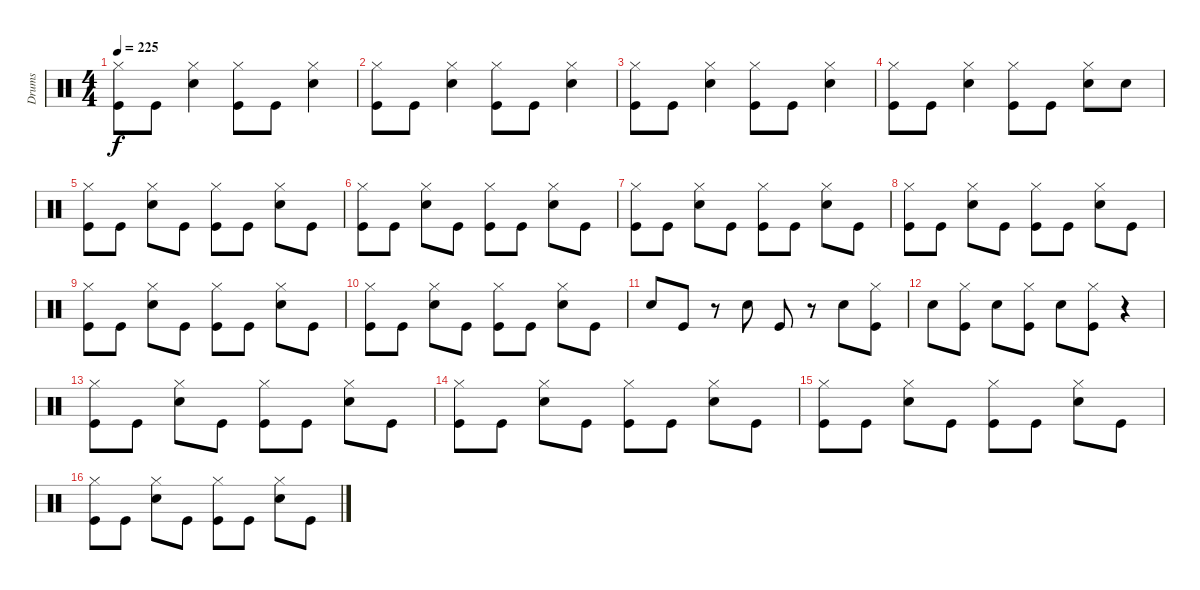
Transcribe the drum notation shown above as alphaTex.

\track ("Drums" "Drums") {instrument percussion}
\staff {score}
\articulation defaults
\ts (4 4)
\tempo 225
\clef neutral
\ks c
("Kick (hit)" "Hi-Hat (closed)").8{dy f} "Kick (hit)".8 ("Electric Snare (hit)" "Hi-Hat (closed)").4 ("Kick (hit)" "Hi-Hat (closed)").8 "Kick (hit)".8 ("Electric Snare (hit)" "Hi-Hat (closed)").4 |
("Kick (hit)" "Hi-Hat (closed)").8 "Kick (hit)".8 ("Electric Snare (hit)" "Hi-Hat (closed)").4 ("Kick (hit)" "Hi-Hat (closed)").8 "Kick (hit)".8 ("Electric Snare (hit)" "Hi-Hat (closed)").4 |
("Kick (hit)" "Hi-Hat (closed)").8 "Kick (hit)".8 ("Electric Snare (hit)" "Hi-Hat (closed)").4 ("Kick (hit)" "Hi-Hat (closed)").8 "Kick (hit)".8 ("Electric Snare (hit)" "Hi-Hat (closed)").4 |
("Kick (hit)" "Hi-Hat (closed)").8 "Kick (hit)".8 ("Electric Snare (hit)" "Hi-Hat (closed)").4 ("Kick (hit)" "Hi-Hat (closed)").8 "Kick (hit)".8 ("Electric Snare (hit)" "Hi-Hat (closed)").8 "Electric Snare (hit)".8 |
("Kick (hit)" "Hi-Hat (closed)").8 "Kick (hit)".8 ("Electric Snare (hit)" "Hi-Hat (closed)").8 "Kick (hit)".8 ("Kick (hit)" "Hi-Hat (closed)").8 "Kick (hit)".8 ("Electric Snare (hit)" "Hi-Hat (closed)").8 "Kick (hit)".8 |
("Kick (hit)" "Hi-Hat (closed)").8 "Kick (hit)".8 ("Electric Snare (hit)" "Hi-Hat (closed)").8 "Kick (hit)".8 ("Kick (hit)" "Hi-Hat (closed)").8 "Kick (hit)".8 ("Electric Snare (hit)" "Hi-Hat (closed)").8 "Kick (hit)".8 |
("Kick (hit)" "Hi-Hat (closed)").8 "Kick (hit)".8 ("Electric Snare (hit)" "Hi-Hat (closed)").8 "Kick (hit)".8 ("Kick (hit)" "Hi-Hat (closed)").8 "Kick (hit)".8 ("Electric Snare (hit)" "Hi-Hat (closed)").8 "Kick (hit)".8 |
("Kick (hit)" "Hi-Hat (closed)").8 "Kick (hit)".8 ("Electric Snare (hit)" "Hi-Hat (closed)").8 "Kick (hit)".8 ("Kick (hit)" "Hi-Hat (closed)").8 "Kick (hit)".8 ("Electric Snare (hit)" "Hi-Hat (closed)").8 "Kick (hit)".8 |
("Kick (hit)" "Hi-Hat (closed)").8 "Kick (hit)".8 ("Electric Snare (hit)" "Hi-Hat (closed)").8 "Kick (hit)".8 ("Kick (hit)" "Hi-Hat (closed)").8 "Kick (hit)".8 ("Electric Snare (hit)" "Hi-Hat (closed)").8 "Kick (hit)".8 |
("Kick (hit)" "Hi-Hat (closed)").8 "Kick (hit)".8 ("Electric Snare (hit)" "Hi-Hat (closed)").8 "Kick (hit)".8 ("Kick (hit)" "Hi-Hat (closed)").8 "Kick (hit)".8 ("Electric Snare (hit)" "Hi-Hat (closed)").8 "Kick (hit)".8 |
"Electric Snare (hit)".8 "Kick (hit)".8 r.8 "Electric Snare (hit)".8 "Kick (hit)".8 r.8 "Electric Snare (hit)".8 ("Kick (hit)" "Hi-Hat (closed)").8 |
"Electric Snare (hit)".8 ("Kick (hit)" "Hi-Hat (closed)").8 "Electric Snare (hit)".8 ("Kick (hit)" "Hi-Hat (closed)").8 "Electric Snare (hit)".8 ("Kick (hit)" "Hi-Hat (closed)").8 r.4 |
("Kick (hit)" "Hi-Hat (closed)").8 "Kick (hit)".8 ("Electric Snare (hit)" "Hi-Hat (closed)").8 "Kick (hit)".8 ("Kick (hit)" "Hi-Hat (closed)").8 "Kick (hit)".8 ("Electric Snare (hit)" "Hi-Hat (closed)").8 "Kick (hit)".8 |
("Kick (hit)" "Hi-Hat (closed)").8 "Kick (hit)".8 ("Electric Snare (hit)" "Hi-Hat (closed)").8 "Kick (hit)".8 ("Kick (hit)" "Hi-Hat (closed)").8 "Kick (hit)".8 ("Electric Snare (hit)" "Hi-Hat (closed)").8 "Kick (hit)".8 |
("Kick (hit)" "Hi-Hat (closed)").8 "Kick (hit)".8 ("Electric Snare (hit)" "Hi-Hat (closed)").8 "Kick (hit)".8 ("Kick (hit)" "Hi-Hat (closed)").8 "Kick (hit)".8 ("Electric Snare (hit)" "Hi-Hat (closed)").8 "Kick (hit)".8 |
("Kick (hit)" "Hi-Hat (closed)").8 "Kick (hit)".8 ("Electric Snare (hit)" "Hi-Hat (closed)").8 "Kick (hit)".8 ("Kick (hit)" "Hi-Hat (closed)").8 "Kick (hit)".8 ("Electric Snare (hit)" "Hi-Hat (closed)").8 "Kick (hit)".8
